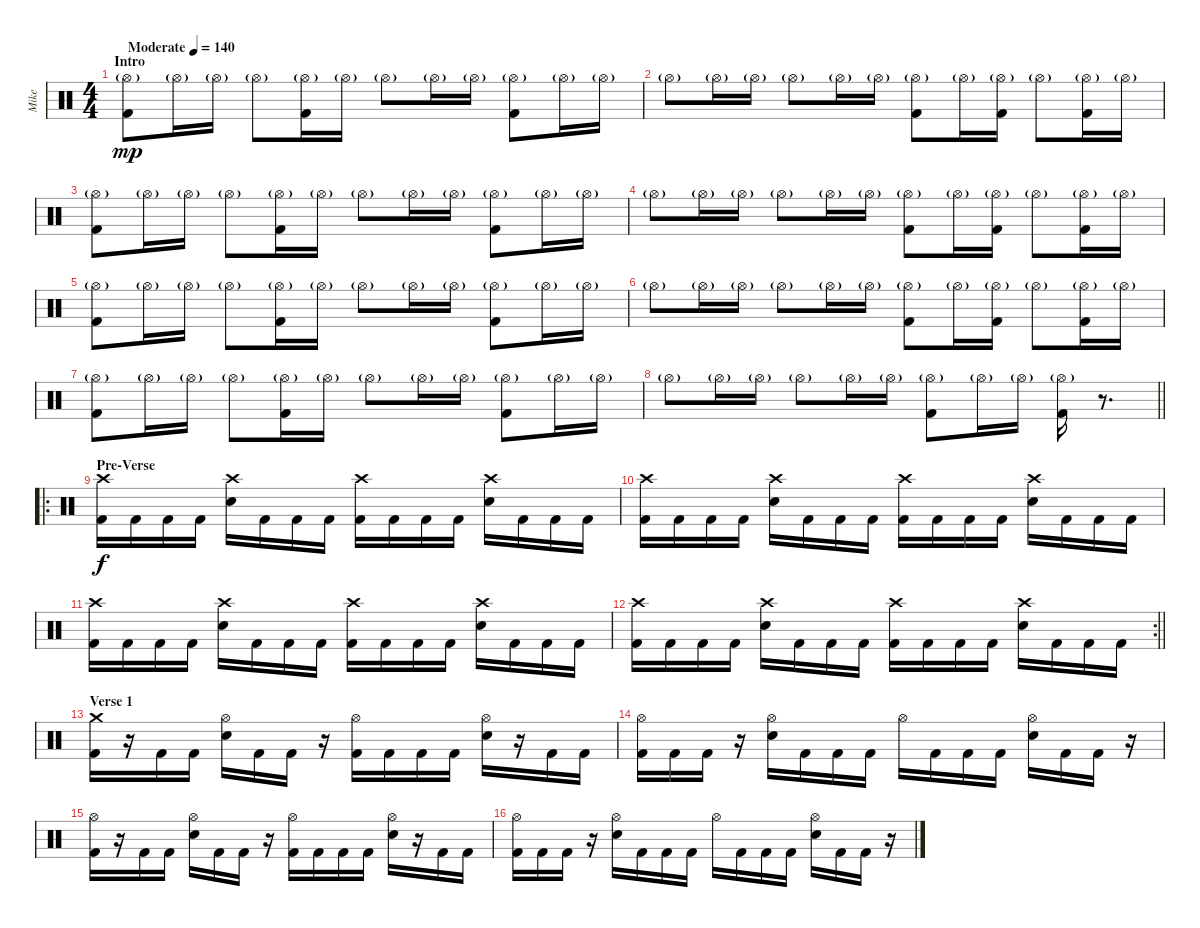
\track ("Mike" "Mike") {instrument percussion}
\staff {score}
\articulation defaults
\ts (4 4)
\section ("" "Intro")
\tempo (140 "Moderate")
\clef neutral
\ks c
("Hi-Hat (open)"{g} "Kick (hit) 2").8{dy mp} "Hi-Hat (open)"{g}.16 "Hi-Hat (open)"{g}.16 "Hi-Hat (open)"{g}.8 ("Hi-Hat (open)"{g} "Kick (hit) 2").16 "Hi-Hat (open)"{g}.16 "Hi-Hat (open)"{g}.8 "Hi-Hat (open)"{g}.16 "Hi-Hat (open)"{g}.16 ("Hi-Hat (open)"{g} "Kick (hit) 2").8 "Hi-Hat (open)"{g}.16 "Hi-Hat (open)"{g}.16 |
"Hi-Hat (open)"{g}.8 "Hi-Hat (open)"{g}.16 "Hi-Hat (open)"{g}.16 "Hi-Hat (open)"{g}.8 "Hi-Hat (open)"{g}.16 "Hi-Hat (open)"{g}.16 ("Hi-Hat (open)"{g} "Kick (hit) 2").8 "Hi-Hat (open)"{g}.16 ("Hi-Hat (open)"{g} "Kick (hit) 2").16 "Hi-Hat (open)"{g}.8 ("Hi-Hat (open)"{g} "Kick (hit) 2").16 "Hi-Hat (open)"{g}.16 |
("Hi-Hat (open)"{g} "Kick (hit) 2").8 "Hi-Hat (open)"{g}.16 "Hi-Hat (open)"{g}.16 "Hi-Hat (open)"{g}.8 ("Hi-Hat (open)"{g} "Kick (hit) 2").16 "Hi-Hat (open)"{g}.16 "Hi-Hat (open)"{g}.8 "Hi-Hat (open)"{g}.16 "Hi-Hat (open)"{g}.16 ("Hi-Hat (open)"{g} "Kick (hit) 2").8 "Hi-Hat (open)"{g}.16 "Hi-Hat (open)"{g}.16 |
"Hi-Hat (open)"{g}.8 "Hi-Hat (open)"{g}.16 "Hi-Hat (open)"{g}.16 "Hi-Hat (open)"{g}.8 "Hi-Hat (open)"{g}.16 "Hi-Hat (open)"{g}.16 ("Hi-Hat (open)"{g} "Kick (hit) 2").8 "Hi-Hat (open)"{g}.16 ("Hi-Hat (open)"{g} "Kick (hit) 2").16 "Hi-Hat (open)"{g}.8 ("Hi-Hat (open)"{g} "Kick (hit) 2").16 "Hi-Hat (open)"{g}.16 |
("Hi-Hat (open)"{g} "Kick (hit) 2").8 "Hi-Hat (open)"{g}.16 "Hi-Hat (open)"{g}.16 "Hi-Hat (open)"{g}.8 ("Hi-Hat (open)"{g} "Kick (hit) 2").16 "Hi-Hat (open)"{g}.16 "Hi-Hat (open)"{g}.8 "Hi-Hat (open)"{g}.16 "Hi-Hat (open)"{g}.16 ("Hi-Hat (open)"{g} "Kick (hit) 2").8 "Hi-Hat (open)"{g}.16 "Hi-Hat (open)"{g}.16 |
"Hi-Hat (open)"{g}.8 "Hi-Hat (open)"{g}.16 "Hi-Hat (open)"{g}.16 "Hi-Hat (open)"{g}.8 "Hi-Hat (open)"{g}.16 "Hi-Hat (open)"{g}.16 ("Hi-Hat (open)"{g} "Kick (hit) 2").8 "Hi-Hat (open)"{g}.16 ("Hi-Hat (open)"{g} "Kick (hit) 2").16 "Hi-Hat (open)"{g}.8 ("Hi-Hat (open)"{g} "Kick (hit) 2").16 "Hi-Hat (open)"{g}.16 |
("Hi-Hat (open)"{g} "Kick (hit) 2").8 "Hi-Hat (open)"{g}.16 "Hi-Hat (open)"{g}.16 "Hi-Hat (open)"{g}.8 ("Hi-Hat (open)"{g} "Kick (hit) 2").16 "Hi-Hat (open)"{g}.16 "Hi-Hat (open)"{g}.8 "Hi-Hat (open)"{g}.16 "Hi-Hat (open)"{g}.16 ("Hi-Hat (open)"{g} "Kick (hit) 2").8 "Hi-Hat (open)"{g}.16 "Hi-Hat (open)"{g}.16 |
\barLineRight lightlight "Hi-Hat (open)"{g}.8 "Hi-Hat (open)"{g}.16 "Hi-Hat (open)"{g}.16 "Hi-Hat (open)"{g}.8 "Hi-Hat (open)"{g}.16 "Hi-Hat (open)"{g}.16
("Hi-Hat (open)"{g} "Kick (hit) 2").8 "Hi-Hat (open)"{g}.16 "Hi-Hat (open)"{g}.16 ("Hi-Hat (open)"{g} "Kick (hit) 2").16 r.8{d} |
\ro
\section ("" "Pre-Verse")
("Crash high (hit)" "Kick (hit) 2").16{dy f} "Kick (hit) 2".16 "Kick (hit) 2".16 "Kick (hit) 2".16 ("Crash high (hit)" "Electric Snare (hit)").16 "Kick (hit) 2".16 "Kick (hit) 2".16 "Kick (hit) 2".16 ("Crash high (hit)" "Kick (hit) 2").16 "Kick (hit) 2".16 "Kick (hit) 2".16 "Kick (hit) 2".16 ("Crash high (hit)" "Electric Snare (hit)").16 "Kick (hit) 2".16 "Kick (hit) 2".16 "Kick (hit) 2".16 |
("Crash high (hit)" "Kick (hit) 2").16 "Kick (hit) 2".16 "Kick (hit) 2".16 "Kick (hit) 2".16 ("Crash high (hit)" "Electric Snare (hit)").16 "Kick (hit) 2".16 "Kick (hit) 2".16 "Kick (hit) 2".16 ("Crash high (hit)" "Kick (hit) 2").16 "Kick (hit) 2".16 "Kick (hit) 2".16 "Kick (hit) 2".16 ("Crash high (hit)" "Electric Snare (hit)").16 "Kick (hit) 2".16 "Kick (hit) 2".16 "Kick (hit) 2".16 |
("Crash high (hit)" "Kick (hit) 2").16 "Kick (hit) 2".16 "Kick (hit) 2".16 "Kick (hit) 2".16 ("Crash high (hit)" "Electric Snare (hit)").16 "Kick (hit) 2".16 "Kick (hit) 2".16 "Kick (hit) 2".16 ("Crash high (hit)" "Kick (hit) 2").16 "Kick (hit) 2".16 "Kick (hit) 2".16 "Kick (hit) 2".16 ("Crash high (hit)" "Electric Snare (hit)").16 "Kick (hit) 2".16 "Kick (hit) 2".16 "Kick (hit) 2".16 |
\rc 2
\barLineRight lightlight
("Crash high (hit)" "Kick (hit) 2").16 "Kick (hit) 2".16 "Kick (hit) 2".16 "Kick (hit) 2".16 ("Crash high (hit)" "Electric Snare (hit)").16 "Kick (hit) 2".16 "Kick (hit) 2".16 "Kick (hit) 2".16 ("Crash high (hit)" "Kick (hit) 2").16 "Kick (hit) 2".16 "Kick (hit) 2".16 "Kick (hit) 2".16 ("Crash high (hit)" "Electric Snare (hit)").16 "Kick (hit) 2".16 "Kick (hit) 2".16 "Kick (hit) 2".16 |
\section ("" "Verse 1")
("Crash medium (hit)" "Kick (hit) 2").16 r.16 "Kick (hit) 2".16 "Kick (hit) 2".16 ("Hi-Hat (open)" "Electric Snare (hit)").16 "Kick (hit) 2".16 "Kick (hit) 2".16 r.16 ("Hi-Hat (open)" "Kick (hit) 2").16 "Kick (hit) 2".16 "Kick (hit) 2".16 "Kick (hit) 2".16 ("Hi-Hat (open)" "Electric Snare (hit)").16 r.16 "Kick (hit) 2".16 "Kick (hit) 2".16 |
("Hi-Hat (open)" "Kick (hit) 2").16 "Kick (hit) 2".16 "Kick (hit) 2".16 r.16 ("Hi-Hat (open)" "Electric Snare (hit)").16 "Kick (hit) 2".16 "Kick (hit) 2".16 "Kick (hit) 2".16 "Hi-Hat (open)".16 "Kick (hit) 2".16 "Kick (hit) 2".16 "Kick (hit) 2".16 ("Hi-Hat (open)" "Electric Snare (hit)").16 "Kick (hit) 2".16 "Kick (hit) 2".16 r.16 |
("Hi-Hat (open)" "Kick (hit) 2").16 r.16 "Kick (hit) 2".16 "Kick (hit) 2".16 ("Hi-Hat (open)" "Electric Snare (hit)").16 "Kick (hit) 2".16 "Kick (hit) 2".16 r.16 ("Hi-Hat (open)" "Kick (hit) 2").16 "Kick (hit) 2".16 "Kick (hit) 2".16 "Kick (hit) 2".16 ("Hi-Hat (open)" "Electric Snare (hit)").16 r.16 "Kick (hit) 2".16 "Kick (hit) 2".16 |
("Hi-Hat (open)" "Kick (hit) 2").16 "Kick (hit) 2".16 "Kick (hit) 2".16 r.16 ("Hi-Hat (open)" "Electric Snare (hit)").16 "Kick (hit) 2".16 "Kick (hit) 2".16 "Kick (hit) 2".16 "Hi-Hat (open)".16 "Kick (hit) 2".16 "Kick (hit) 2".16 "Kick (hit) 2".16 ("Hi-Hat (open)" "Electric Snare (hit)").16 "Kick (hit) 2".16 "Kick (hit) 2".16 r.16
